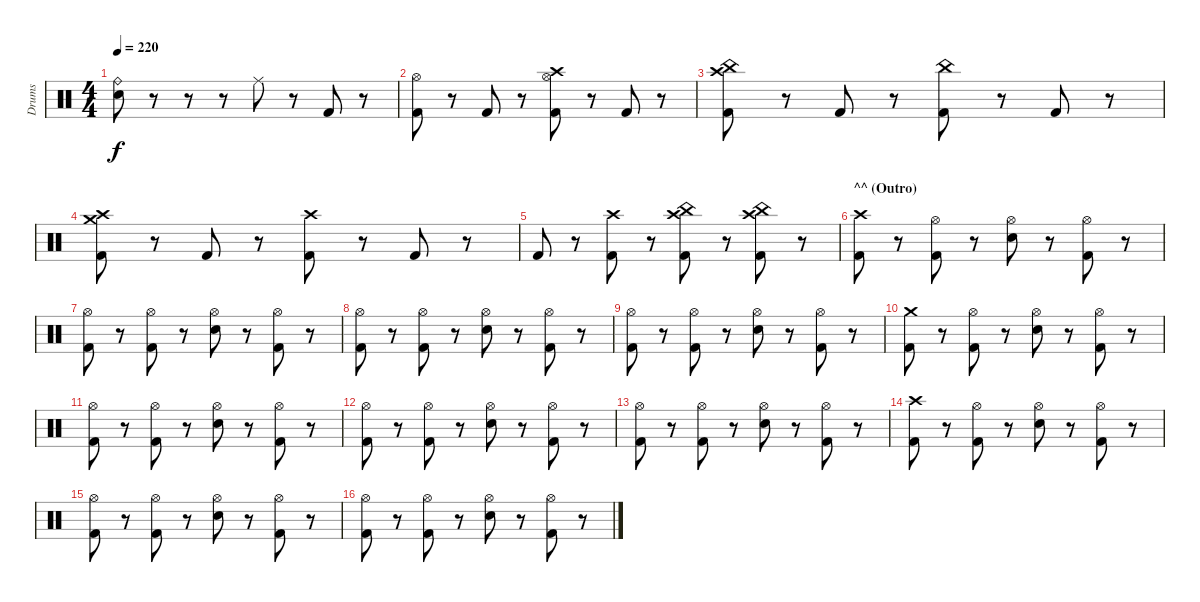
\track ("Drums" "Drums") {instrument percussion}
\staff {score}
\articulation defaults
\ts (4 4)
\tempo 220
\clef neutral
\ks c
("Ride (bell)" "Electric Snare (hit)").8{dy f} r.8 r.8 r.8 "Ride (middle)".8 r.8 "Kick (hit) 2".8 r.8 |
("Hi-Hat (open)" "Kick (hit) 2").8 r.8 "Kick (hit) 2".8 r.8 ("Crash high (hit)" "Hi-Hat (open)" "Kick (hit) 2").8 r.8 "Kick (hit) 2".8 r.8 |
("Crash high (hit)" "China (hit)" "Kick (hit) 2").8 r.8 "Kick (hit) 2".8 r.8 ("China (hit)" "Kick (hit) 2").8 r.8 "Kick (hit) 2".8 r.8 |
("Crash high (hit)" "Crash medium (hit)" "Kick (hit) 2").8 r.8 "Kick (hit) 2".8 r.8 ("Crash high (hit)" "Kick (hit) 2").8 r.8 "Kick (hit) 2".8 r.8 |
"Kick (hit) 2".8 r.8 ("Crash high (hit)" "Kick (hit) 2").8 r.8 ("Crash high (hit)" "China (hit)" "Kick (hit) 2").8 r.8 ("Crash high (hit)" "China (hit)" "Kick (hit) 2").8 r.8 |
\section ("" "^^ (Outro)")
("Crash high (hit)" "Kick (hit) 2").8 r.8 ("Hi-Hat (open)" "Kick (hit) 2").8 r.8 ("Hi-Hat (open)" "Electric Snare (hit)").8 r.8 ("Hi-Hat (open)" "Kick (hit) 2").8 r.8 |
("Hi-Hat (open)" "Kick (hit) 2").8 r.8 ("Hi-Hat (open)" "Kick (hit) 2").8 r.8 ("Hi-Hat (open)" "Electric Snare (hit)").8 r.8 ("Hi-Hat (open)" "Kick (hit) 2").8 r.8 |
("Hi-Hat (open)" "Kick (hit) 2").8 r.8 ("Hi-Hat (open)" "Kick (hit) 2").8 r.8 ("Hi-Hat (open)" "Electric Snare (hit)").8 r.8 ("Hi-Hat (open)" "Kick (hit) 2").8 r.8 |
("Hi-Hat (open)" "Kick (hit) 2").8 r.8 ("Hi-Hat (open)" "Kick (hit) 2").8 r.8 ("Hi-Hat (open)" "Electric Snare (hit)").8 r.8 ("Hi-Hat (open)" "Kick (hit) 2").8 r.8 |
("Crash medium (hit)" "Kick (hit) 2").8 r.8 ("Hi-Hat (open)" "Kick (hit) 2").8 r.8 ("Hi-Hat (open)" "Electric Snare (hit)").8 r.8 ("Hi-Hat (open)" "Kick (hit) 2").8 r.8 |
("Hi-Hat (open)" "Kick (hit) 2").8 r.8 ("Hi-Hat (open)" "Kick (hit) 2").8 r.8 ("Hi-Hat (open)" "Electric Snare (hit)").8 r.8 ("Hi-Hat (open)" "Kick (hit) 2").8 r.8 |
("Hi-Hat (open)" "Kick (hit) 2").8 r.8 ("Hi-Hat (open)" "Kick (hit) 2").8 r.8 ("Hi-Hat (open)" "Electric Snare (hit)").8 r.8 ("Hi-Hat (open)" "Kick (hit) 2").8 r.8 |
("Hi-Hat (open)" "Kick (hit) 2").8 r.8 ("Hi-Hat (open)" "Kick (hit) 2").8 r.8 ("Hi-Hat (open)" "Electric Snare (hit)").8 r.8 ("Hi-Hat (open)" "Kick (hit) 2").8 r.8 |
("Crash high (hit)" "Kick (hit) 2").8 r.8 ("Hi-Hat (open)" "Kick (hit) 2").8 r.8 ("Hi-Hat (open)" "Electric Snare (hit)").8 r.8 ("Hi-Hat (open)" "Kick (hit) 2").8 r.8 |
("Hi-Hat (open)" "Kick (hit) 2").8 r.8 ("Hi-Hat (open)" "Kick (hit) 2").8 r.8 ("Hi-Hat (open)" "Electric Snare (hit)").8 r.8 ("Hi-Hat (open)" "Kick (hit) 2").8 r.8 |
("Hi-Hat (open)" "Kick (hit) 2").8 r.8 ("Hi-Hat (open)" "Kick (hit) 2").8 r.8 ("Hi-Hat (open)" "Electric Snare (hit)").8 r.8 ("Hi-Hat (open)" "Kick (hit) 2").8 r.8
